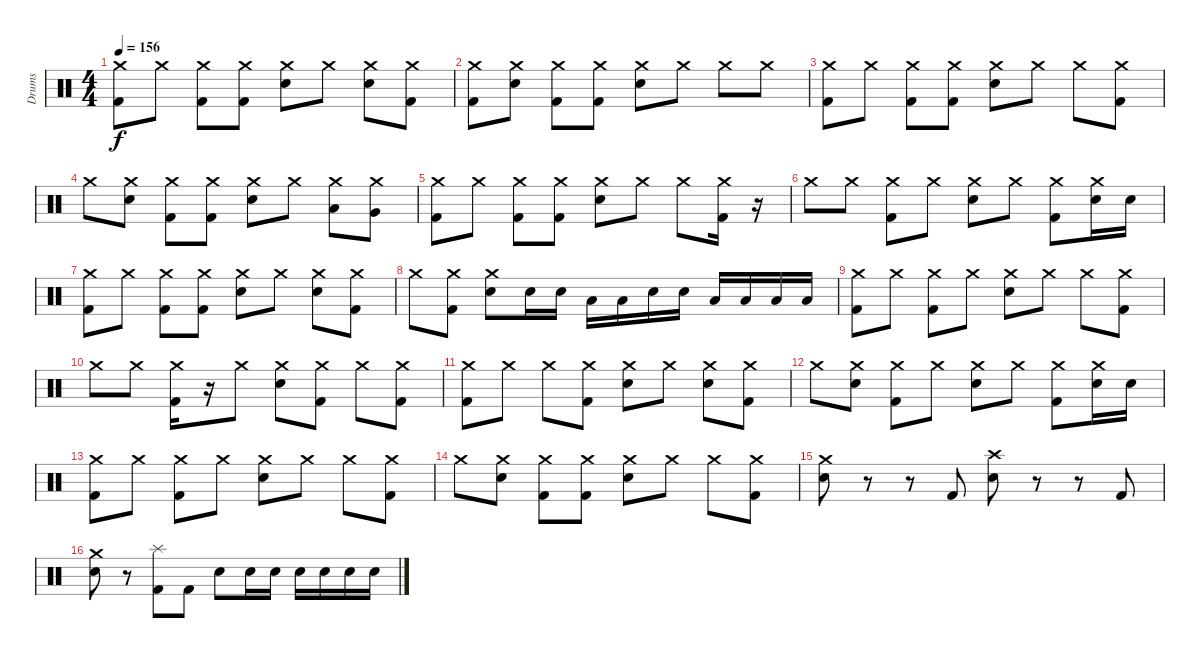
\track ("Drums" "Drums") {instrument percussion}
\staff {score}
\articulation defaults
\ts (4 4)
\tempo 156
\clef neutral
\ks c
("Crash medium (hit)" "Kick (hit) 2").8{dy f} "Crash medium (hit)".8 ("Crash medium (hit)" "Kick (hit) 2").8 ("Crash medium (hit)" "Kick (hit) 2").8 ("Crash medium (hit)" "Electric Snare (hit)").8 "Crash medium (hit)".8 ("Crash medium (hit)" "Electric Snare (hit)").8 ("Crash medium (hit)" "Kick (hit) 2").8 |
("Crash medium (hit)" "Kick (hit) 2").8 ("Crash medium (hit)" "Electric Snare (hit)").8 ("Crash medium (hit)" "Kick (hit) 2").8 ("Crash medium (hit)" "Kick (hit) 2").8 ("Crash medium (hit)" "Electric Snare (hit)").8 "Crash medium (hit)".8 "Crash medium (hit)".8 "Crash medium (hit)".8 |
("Crash medium (hit)" "Kick (hit) 2").8 "Crash medium (hit)".8 ("Crash medium (hit)" "Kick (hit) 2").8 ("Crash medium (hit)" "Kick (hit) 2").8 ("Crash medium (hit)" "Electric Snare (hit)").8 "Crash medium (hit)".8 "Crash medium (hit)".8 ("Crash medium (hit)" "Kick (hit) 2").8 |
"Crash medium (hit)".8 ("Crash medium (hit)" "Electric Snare (hit)").8 ("Crash medium (hit)" "Kick (hit) 2").8 ("Crash medium (hit)" "Kick (hit) 2").8 ("Crash medium (hit)" "Electric Snare (hit)").8 "Crash medium (hit)".8 ("Crash medium (hit)" "Low Tom (hit)").8 ("Crash medium (hit)" "Very Low Tom (hit)").8 |
("Crash medium (hit)" "Kick (hit) 2").8 "Crash medium (hit)".8 ("Crash medium (hit)" "Kick (hit) 2").8 ("Crash medium (hit)" "Kick (hit) 2").8 ("Crash medium (hit)" "Electric Snare (hit)").8 "Crash medium (hit)".8 "Crash medium (hit)".8 ("Crash medium (hit)" "Kick (hit) 2").16 r.16 |
"Crash medium (hit)".8 "Crash medium (hit)".8 ("Crash medium (hit)" "Kick (hit) 2").8 "Crash medium (hit)".8 ("Crash medium (hit)" "Electric Snare (hit)").8 "Crash medium (hit)".8 ("Crash medium (hit)" "Kick (hit) 2").8 ("Crash medium (hit)" "Electric Snare (hit)").16 "Electric Snare (hit)".16 |
("Crash medium (hit)" "Kick (hit) 2").8 "Crash medium (hit)".8 ("Crash medium (hit)" "Kick (hit) 2").8 ("Crash medium (hit)" "Kick (hit) 2").8 ("Crash medium (hit)" "Electric Snare (hit)").8 "Crash medium (hit)".8 ("Crash medium (hit)" "Electric Snare (hit)").8 ("Crash medium (hit)" "Kick (hit) 2").8 |
"Crash medium (hit)".8 ("Crash medium (hit)" "Kick (hit) 2").8 ("Crash medium (hit)" "Electric Snare (hit)").8 "Electric Snare (hit)".16 "Electric Snare (hit)".16 "Low Tom (hit)".16 "Low Tom (hit)".16 "Electric Snare (hit)".16 "Electric Snare (hit)".16 "Low Tom (hit)".16 "Low Tom (hit)".16 "Low Floor Tom (hit)".16 "Low Floor Tom (hit)".16 |
("Crash medium (hit)" "Kick (hit) 2").8 "Crash medium (hit)".8 ("Crash medium (hit)" "Kick (hit) 2").8 "Crash medium (hit)".8 ("Crash medium (hit)" "Electric Snare (hit)").8 "Crash medium (hit)".8 "Crash medium (hit)".8 ("Crash medium (hit)" "Kick (hit) 2").8 |
"Crash medium (hit)".8 "Crash medium (hit)".8 ("Crash medium (hit)" "Kick (hit) 2").16 r.16 "Crash medium (hit)".8 ("Crash medium (hit)" "Electric Snare (hit)").8 ("Crash medium (hit)" "Kick (hit) 2").8 "Crash medium (hit)".8 ("Crash medium (hit)" "Kick (hit) 2").8 |
("Crash medium (hit)" "Kick (hit) 2").8 "Crash medium (hit)".8 "Crash medium (hit)".8 ("Crash medium (hit)" "Kick (hit) 2").8 ("Crash medium (hit)" "Electric Snare (hit)").8 "Crash medium (hit)".8 ("Crash medium (hit)" "Electric Snare (hit)").8 ("Crash medium (hit)" "Kick (hit) 2").8 |
"Crash medium (hit)".8 ("Crash medium (hit)" "Electric Snare (hit)").8 ("Crash medium (hit)" "Kick (hit) 2").8 "Crash medium (hit)".8 ("Crash medium (hit)" "Electric Snare (hit)").8 "Crash medium (hit)".8 ("Crash medium (hit)" "Kick (hit) 2").8 ("Crash medium (hit)" "Electric Snare (hit)").16 "Electric Snare (hit)".16 |
("Crash medium (hit)" "Kick (hit) 2").8 "Crash medium (hit)".8 ("Crash medium (hit)" "Kick (hit) 2").8 "Crash medium (hit)".8 ("Crash medium (hit)" "Electric Snare (hit)").8 "Crash medium (hit)".8 "Crash medium (hit)".8 ("Crash medium (hit)" "Kick (hit) 2").8 |
"Crash medium (hit)".8 ("Crash medium (hit)" "Electric Snare (hit)").8 ("Crash medium (hit)" "Kick (hit) 2").8 ("Crash medium (hit)" "Kick (hit) 2").8 ("Crash medium (hit)" "Electric Snare (hit)").8 "Crash medium (hit)".8 "Crash medium (hit)".8 ("Crash medium (hit)" "Kick (hit) 2").8 |
("Crash medium (hit)" "Electric Snare (hit)").8 r.8 r.8 "Kick (hit) 2".8 ("Crash high (hit)" "Electric Snare (hit)").8 r.8 r.8 "Kick (hit) 2".8 |
("Crash medium (hit)" "Electric Snare (hit)").8 r.8 ("Splash (hit)" "Kick (hit) 2").8 "Kick (hit) 2".8 "Electric Snare (hit)".8 "Electric Snare (hit)".16 "Electric Snare (hit)".16 "Electric Snare (hit)".16 "Electric Snare (hit)".16 "Electric Snare (hit)".16 "Electric Snare (hit)".16
